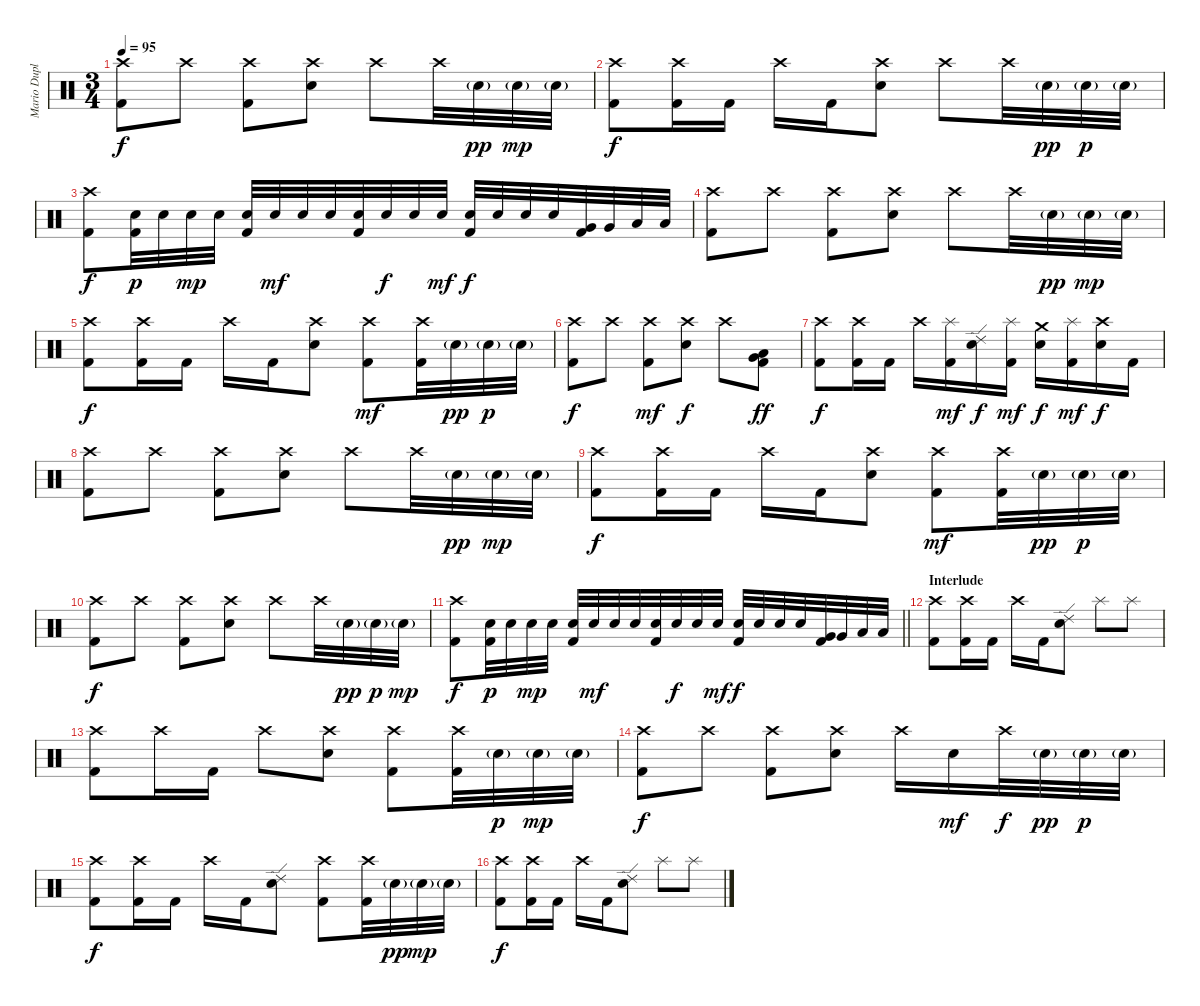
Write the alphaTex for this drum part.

\track ("Mario Duplantier" "Mario Dupl") {instrument percussion}
\staff {score}
\articulation defaults
\ts (3 4)
\tempo 95
\clef neutral
\ks c
("Crash high (hit)" "Kick (hit) 2").8{dy f} "Crash high (hit)".8 ("Crash high (hit)" "Kick (hit) 2").8 ("Crash high (hit)" "Snare (hit) 2").8 "Crash high (hit)".8 "Crash high (hit)".32 "Snare (hit) 2"{g}.32{dy pp} "Snare (hit) 2"{g}.32{dy mp} "Snare (hit) 2"{g}.32 |
("Crash high (hit)" "Kick (hit) 2").8{dy f} ("Crash high (hit)" "Kick (hit) 2").16 "Kick (hit) 2".16 "Crash high (hit)".16 "Kick (hit) 2".16 ("Crash high (hit)" "Snare (hit) 2").8 "Crash high (hit)".8 "Crash high (hit)".32 "Snare (hit) 2"{g}.32{dy pp} "Snare (hit) 2"{g}.32{dy p} "Snare (hit) 2"{g}.32 |
("Crash high (hit)" "Kick (hit) 2").8{dy f} ("Snare (hit) 2" "Kick (hit) 2").32{dy p} "Snare (hit) 2".32 "Snare (hit) 2".32{dy mp} "Snare (hit) 2".32 ("Snare (hit) 2" "Kick (hit) 2").32 "Snare (hit) 2".32{dy mf} "Snare (hit) 2".32 "Snare (hit) 2".32 ("Snare (hit) 2" "Kick (hit) 2").32 "Snare (hit) 2".32{dy f} "Snare (hit) 2".32 "Snare (hit) 2".32{dy mf} ("Snare (hit) 2" "Kick (hit) 2").32{dy f} "Snare (hit) 2".32 "Snare (hit) 2".32 "Snare (hit) 2".32 ("Very Low Tom (hit)" "Kick (hit) 2").32 "Very Low Tom (hit)".32 "Low Floor Tom (hit)".32 "Low Floor Tom (hit)".32 |
("Crash high (hit)" "Kick (hit) 2").8 "Crash high (hit)".8 ("Crash high (hit)" "Kick (hit) 2").8 ("Crash high (hit)" "Snare (hit) 2").8 "Crash high (hit)".8 "Crash high (hit)".32 "Snare (hit) 2"{g}.32{dy pp} "Snare (hit) 2"{g}.32{dy mp} "Snare (hit) 2"{g}.32 |
("Crash high (hit)" "Kick (hit) 2").8{dy f} ("Crash high (hit)" "Kick (hit) 2").16 "Kick (hit) 2".16 "Crash high (hit)".16 "Kick (hit) 2".16 ("Crash high (hit)" "Snare (hit) 2").8 ("Crash high (hit)" "Kick (hit) 2").8{dy mf} ("Crash high (hit)" "Kick (hit) 2").32 "Snare (hit) 2"{g}.32{dy pp} "Snare (hit) 2"{g}.32{dy p} "Snare (hit) 2"{g}.32 |
("Crash high (hit)" "Kick (hit) 2").8{dy f} "Crash high (hit)".8 ("Crash high (hit)" "Kick (hit) 2").8{dy mf} ("Crash high (hit)" "Snare (hit) 2").8{dy f} "Crash high (hit)".8 ("Very Low Tom (hit)" "Low Floor Tom (hit)" "Kick (hit) 2").8{dy ff} |
("Crash high (hit)" "Kick (hit) 2").8{dy f} ("Crash high (hit)" "Kick (hit) 2").16 "Kick (hit) 2".16 "Crash high (hit)".16 ("Splash (hit)" "Kick (hit) 2").16{dy mf} ("Ride (edge) 2" "Snare (hit) 2").16{dy f} ("Splash (hit)" "Kick (hit) 2").16{dy mf} ("Crash medium (hit)" "Snare (hit) 2").16{dy f} ("Splash (hit)" "Kick (hit) 2").16{dy mf} ("Crash high (hit)" "Snare (hit) 2").16{dy f} "Kick (hit) 2".16 |
("Crash high (hit)" "Kick (hit) 2").8 "Crash high (hit)".8 ("Crash high (hit)" "Kick (hit) 2").8 ("Crash high (hit)" "Snare (hit) 2").8 "Crash high (hit)".8 "Crash high (hit)".32 "Snare (hit) 2"{g}.32{dy pp} "Snare (hit) 2"{g}.32{dy mp} "Snare (hit) 2"{g}.32 |
("Crash high (hit)" "Kick (hit) 2").8{dy f} ("Crash high (hit)" "Kick (hit) 2").16 "Kick (hit) 2".16 "Crash high (hit)".16 "Kick (hit) 2".16 ("Crash high (hit)" "Snare (hit) 2").8 ("Crash high (hit)" "Kick (hit) 2").8{dy mf} ("Crash high (hit)" "Kick (hit) 2").32 "Snare (hit) 2"{g}.32{dy pp} "Snare (hit) 2"{g}.32{dy p} "Snare (hit) 2"{g}.32 |
("Crash high (hit)" "Kick (hit) 2").8{dy f} "Crash high (hit)".8 ("Crash high (hit)" "Kick (hit) 2").8 ("Crash high (hit)" "Snare (hit) 2").8 "Crash high (hit)".8 "Crash high (hit)".32 "Snare (hit) 2"{g}.32{dy pp} "Snare (hit) 2"{g}.32{dy p} "Snare (hit) 2"{g}.32{dy mp} |
\barLineRight lightlight
("Crash high (hit)" "Kick (hit) 2").8{dy f} ("Snare (hit) 2" "Kick (hit) 2").32{dy p} "Snare (hit) 2".32 "Snare (hit) 2".32{dy mp} "Snare (hit) 2".32 ("Snare (hit) 2" "Kick (hit) 2").32 "Snare (hit) 2".32{dy mf} "Snare (hit) 2".32 "Snare (hit) 2".32 ("Snare (hit) 2" "Kick (hit) 2").32 "Snare (hit) 2".32{dy f} "Snare (hit) 2".32 "Snare (hit) 2".32{dy mf} ("Snare (hit) 2" "Kick (hit) 2").32{dy f} "Snare (hit) 2".32 "Snare (hit) 2".32 "Snare (hit) 2".32 ("Very Low Tom (hit)" "Kick (hit) 2").32 "Very Low Tom (hit)".32 "Low Floor Tom (hit)".32 "Low Floor Tom (hit)".32 |
\section ("" "Interlude")
("Crash high (hit)" "Kick (hit) 2").8 ("Crash high (hit)" "Kick (hit) 2").16 "Kick (hit) 2".16 "Crash high (hit)".16 "Kick (hit) 2".16 ("Ride (edge) 2" "Snare (hit) 2").8 "Splash (hit)".8 "Splash (hit)".8 |
("Crash high (hit)" "Kick (hit) 2").8 "Crash high (hit)".16 "Kick (hit) 2".16 "Crash high (hit)".8 ("Crash high (hit)" "Snare (hit) 2").8 ("Crash high (hit)" "Kick (hit) 2").8 ("Crash high (hit)" "Kick (hit) 2").32 "Snare (hit) 2"{g}.32{dy p} "Snare (hit) 2"{g}.32{dy mp} "Snare (hit) 2"{g}.32 |
("Crash high (hit)" "Kick (hit) 2").8{dy f} "Crash high (hit)".8 ("Crash high (hit)" "Kick (hit) 2").8 ("Crash high (hit)" "Snare (hit) 2").8 "Crash high (hit)".16 "Snare (hit) 2".16{dy mf} "Crash high (hit)".32{dy f} "Snare (hit) 2"{g}.32{dy pp} "Snare (hit) 2"{g}.32{dy p} "Snare (hit) 2"{g}.32 |
("Crash high (hit)" "Kick (hit) 2").8{dy f} ("Crash high (hit)" "Kick (hit) 2").16 "Kick (hit) 2".16 "Crash high (hit)".16 "Kick (hit) 2".16 ("Ride (edge) 2" "Snare (hit) 2").8 ("Crash high (hit)" "Kick (hit) 2").8 ("Crash high (hit)" "Kick (hit) 2").32 "Snare (hit) 2"{g}.32{dy pp} "Snare (hit) 2"{g}.32{dy mp} "Snare (hit) 2"{g}.32 |
("Crash high (hit)" "Kick (hit) 2").8{dy f} ("Crash high (hit)" "Kick (hit) 2").16 "Kick (hit) 2".16 "Crash high (hit)".16 "Kick (hit) 2".16 ("Ride (edge) 2" "Snare (hit) 2").8 "Splash (hit)".8 "Splash (hit)".8
